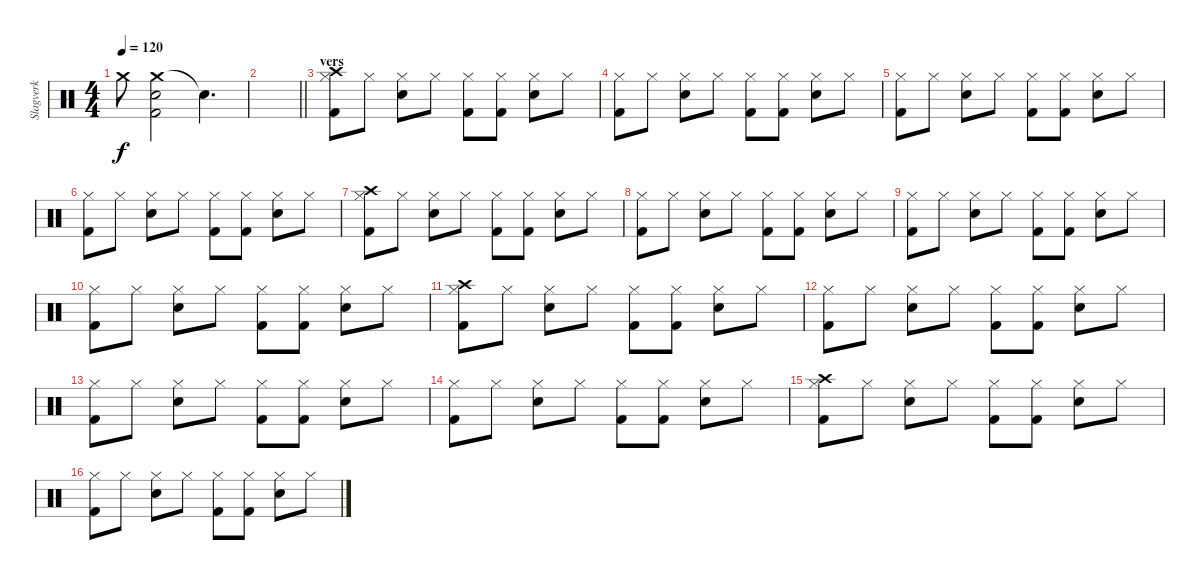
\track ("Slagverk" "Slagverk") {instrument percussion}
\staff {score}
\articulation defaults
\ts (4 4)
\tempo 120
\clef neutral
\ks c "Crash medium (hit)"{t}.8{dy f}
("Crash medium (hit)" "Kick (hit) 2" "Snare (hit) 2").2 "Snare (hit)"{t}.4{d} |
\barLineRight lightlight
|
\section ("" "vers")
("Kick (hit) 2" "Hi-Hat (closed)" "Crash high (hit)").8 "Hi-Hat (closed)".8 ("Snare (hit) 2" "Hi-Hat (closed)").8 "Hi-Hat (closed)".8 ("Kick (hit) 2" "Hi-Hat (closed)").8 ("Kick (hit) 2" "Hi-Hat (closed)").8 ("Snare (hit) 2" "Hi-Hat (closed)").8 "Hi-Hat (closed)".8 |
("Kick (hit) 2" "Hi-Hat (closed)").8 "Hi-Hat (closed)".8 ("Snare (hit) 2" "Hi-Hat (closed)").8 "Hi-Hat (closed)".8 ("Kick (hit) 2" "Hi-Hat (closed)").8 ("Kick (hit) 2" "Hi-Hat (closed)").8 ("Snare (hit) 2" "Hi-Hat (closed)").8 "Hi-Hat (closed)".8 |
("Kick (hit) 2" "Hi-Hat (closed)").8 "Hi-Hat (closed)".8 ("Snare (hit) 2" "Hi-Hat (closed)").8 "Hi-Hat (closed)".8 ("Kick (hit) 2" "Hi-Hat (closed)").8 ("Kick (hit) 2" "Hi-Hat (closed)").8 ("Snare (hit) 2" "Hi-Hat (closed)").8 "Hi-Hat (closed)".8 |
("Kick (hit) 2" "Hi-Hat (closed)").8 "Hi-Hat (closed)".8 ("Snare (hit) 2" "Hi-Hat (closed)").8 "Hi-Hat (closed)".8 ("Kick (hit) 2" "Hi-Hat (closed)").8 ("Kick (hit) 2" "Hi-Hat (closed)").8 ("Snare (hit) 2" "Hi-Hat (closed)").8 "Hi-Hat (closed)".8 |
("Kick (hit) 2" "Hi-Hat (closed)" "Crash high (hit)").8 "Hi-Hat (closed)".8 ("Snare (hit) 2" "Hi-Hat (closed)").8 "Hi-Hat (closed)".8 ("Kick (hit) 2" "Hi-Hat (closed)").8 ("Kick (hit) 2" "Hi-Hat (closed)").8 ("Snare (hit) 2" "Hi-Hat (closed)").8 "Hi-Hat (closed)".8 |
("Kick (hit) 2" "Hi-Hat (closed)").8 "Hi-Hat (closed)".8 ("Snare (hit) 2" "Hi-Hat (closed)").8 "Hi-Hat (closed)".8 ("Kick (hit) 2" "Hi-Hat (closed)").8 ("Kick (hit) 2" "Hi-Hat (closed)").8 ("Snare (hit) 2" "Hi-Hat (closed)").8 "Hi-Hat (closed)".8 |
("Kick (hit) 2" "Hi-Hat (closed)").8 "Hi-Hat (closed)".8 ("Snare (hit) 2" "Hi-Hat (closed)").8 "Hi-Hat (closed)".8 ("Kick (hit) 2" "Hi-Hat (closed)").8 ("Kick (hit) 2" "Hi-Hat (closed)").8 ("Snare (hit) 2" "Hi-Hat (closed)").8 "Hi-Hat (closed)".8 |
("Kick (hit) 2" "Hi-Hat (closed)").8 "Hi-Hat (closed)".8 ("Snare (hit) 2" "Hi-Hat (closed)").8 "Hi-Hat (closed)".8 ("Kick (hit) 2" "Hi-Hat (closed)").8 ("Kick (hit) 2" "Hi-Hat (closed)").8 ("Snare (hit) 2" "Hi-Hat (closed)").8 "Hi-Hat (closed)".8 |
("Kick (hit) 2" "Hi-Hat (closed)" "Crash high (hit)").8 "Hi-Hat (closed)".8 ("Snare (hit) 2" "Hi-Hat (closed)").8 "Hi-Hat (closed)".8 ("Kick (hit) 2" "Hi-Hat (closed)").8 ("Kick (hit) 2" "Hi-Hat (closed)").8 ("Snare (hit) 2" "Hi-Hat (closed)").8 "Hi-Hat (closed)".8 |
("Kick (hit) 2" "Hi-Hat (closed)").8 "Hi-Hat (closed)".8 ("Snare (hit) 2" "Hi-Hat (closed)").8 "Hi-Hat (closed)".8 ("Kick (hit) 2" "Hi-Hat (closed)").8 ("Kick (hit) 2" "Hi-Hat (closed)").8 ("Snare (hit) 2" "Hi-Hat (closed)").8 "Hi-Hat (closed)".8 |
("Kick (hit) 2" "Hi-Hat (closed)").8 "Hi-Hat (closed)".8 ("Snare (hit) 2" "Hi-Hat (closed)").8 "Hi-Hat (closed)".8 ("Kick (hit) 2" "Hi-Hat (closed)").8 ("Kick (hit) 2" "Hi-Hat (closed)").8 ("Snare (hit) 2" "Hi-Hat (closed)").8 "Hi-Hat (closed)".8 |
("Kick (hit) 2" "Hi-Hat (closed)").8 "Hi-Hat (closed)".8 ("Snare (hit) 2" "Hi-Hat (closed)").8 "Hi-Hat (closed)".8 ("Kick (hit) 2" "Hi-Hat (closed)").8 ("Kick (hit) 2" "Hi-Hat (closed)").8 ("Snare (hit) 2" "Hi-Hat (closed)").8 "Hi-Hat (closed)".8 |
("Kick (hit) 2" "Hi-Hat (closed)" "Crash high (hit)").8 "Hi-Hat (closed)".8 ("Snare (hit) 2" "Hi-Hat (closed)").8 "Hi-Hat (closed)".8 ("Kick (hit) 2" "Hi-Hat (closed)").8 ("Kick (hit) 2" "Hi-Hat (closed)").8 ("Snare (hit) 2" "Hi-Hat (closed)").8 "Hi-Hat (closed)".8 |
("Kick (hit) 2" "Hi-Hat (closed)").8 "Hi-Hat (closed)".8 ("Snare (hit) 2" "Hi-Hat (closed)").8 "Hi-Hat (closed)".8 ("Kick (hit) 2" "Hi-Hat (closed)").8 ("Kick (hit) 2" "Hi-Hat (closed)").8 ("Snare (hit) 2" "Hi-Hat (closed)").8 "Hi-Hat (closed)".8
